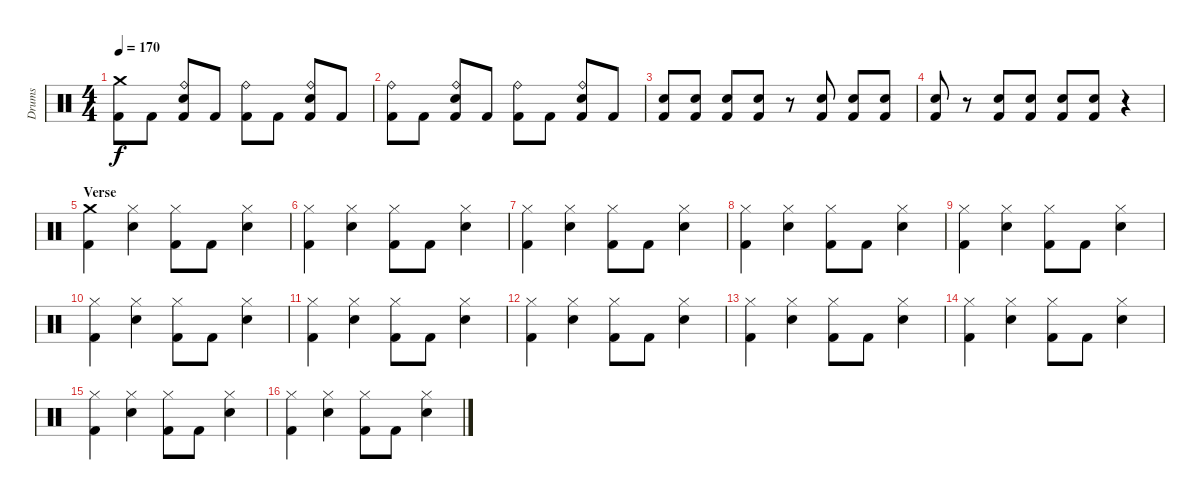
\track ("Drums" "Drums") {instrument percussion}
\staff {score}
\articulation defaults
\ts (4 4)
\tempo 170
\clef neutral
\ks c
("Crash medium (hit)" "Kick (hit) 2").8{dy f} "Kick (hit) 2".8 ("Ride (bell)" "Electric Snare (hit)" "Kick (hit) 2").8 "Kick (hit) 2".8 ("Ride (bell)" "Kick (hit) 2").8 "Kick (hit) 2".8 ("Ride (bell)" "Electric Snare (hit)" "Kick (hit) 2").8 "Kick (hit) 2".8 |
("Ride (bell)" "Kick (hit) 2").8 "Kick (hit) 2".8 ("Ride (bell)" "Electric Snare (hit)" "Kick (hit) 2").8 "Kick (hit) 2".8 ("Ride (bell)" "Kick (hit) 2").8 "Kick (hit) 2".8 ("Ride (bell)" "Electric Snare (hit)" "Kick (hit) 2").8 "Kick (hit) 2".8 |
("Electric Snare (hit)" "Kick (hit) 2").8 ("Electric Snare (hit)" "Kick (hit) 2").8 ("Electric Snare (hit)" "Kick (hit) 2").8 ("Electric Snare (hit)" "Kick (hit) 2").8 r.8 ("Electric Snare (hit)" "Kick (hit) 2").8 ("Electric Snare (hit)" "Kick (hit) 2").8 ("Electric Snare (hit)" "Kick (hit) 2").8 |
("Electric Snare (hit)" "Kick (hit) 2").8 r.8 ("Electric Snare (hit)" "Kick (hit) 2").8 ("Electric Snare (hit)" "Kick (hit) 2").8 ("Electric Snare (hit)" "Kick (hit) 2").8 ("Electric Snare (hit)" "Kick (hit) 2").8 r.4 |
\section ("" "Verse")
("Crash medium (hit)" "Kick (hit) 2").4 ("Hi-Hat (closed)" "Electric Snare (hit)").4 ("Hi-Hat (closed)" "Kick (hit) 2").8 "Kick (hit) 2".8 ("Hi-Hat (closed)" "Electric Snare (hit)").4 |
("Hi-Hat (closed)" "Kick (hit) 2").4 ("Hi-Hat (closed)" "Electric Snare (hit)").4 ("Hi-Hat (closed)" "Kick (hit) 2").8 "Kick (hit) 2".8 ("Hi-Hat (closed)" "Electric Snare (hit)").4 |
("Hi-Hat (closed)" "Kick (hit) 2").4 ("Hi-Hat (closed)" "Electric Snare (hit)").4 ("Hi-Hat (closed)" "Kick (hit) 2").8 "Kick (hit) 2".8 ("Hi-Hat (closed)" "Electric Snare (hit)").4 |
("Hi-Hat (closed)" "Kick (hit) 2").4 ("Hi-Hat (closed)" "Electric Snare (hit)").4 ("Hi-Hat (closed)" "Kick (hit) 2").8 "Kick (hit) 2".8 ("Hi-Hat (closed)" "Electric Snare (hit)").4 |
("Hi-Hat (closed)" "Kick (hit) 2").4 ("Hi-Hat (closed)" "Electric Snare (hit)").4 ("Hi-Hat (closed)" "Kick (hit) 2").8 "Kick (hit) 2".8 ("Hi-Hat (closed)" "Electric Snare (hit)").4 |
("Hi-Hat (closed)" "Kick (hit) 2").4 ("Hi-Hat (closed)" "Electric Snare (hit)").4 ("Hi-Hat (closed)" "Kick (hit) 2").8 "Kick (hit) 2".8 ("Hi-Hat (closed)" "Electric Snare (hit)").4 |
("Hi-Hat (closed)" "Kick (hit) 2").4 ("Hi-Hat (closed)" "Electric Snare (hit)").4 ("Hi-Hat (closed)" "Kick (hit) 2").8 "Kick (hit) 2".8 ("Hi-Hat (closed)" "Electric Snare (hit)").4 |
("Hi-Hat (closed)" "Kick (hit) 2").4 ("Hi-Hat (closed)" "Electric Snare (hit)").4 ("Hi-Hat (closed)" "Kick (hit) 2").8 "Kick (hit) 2".8 ("Hi-Hat (closed)" "Electric Snare (hit)").4 |
("Hi-Hat (closed)" "Kick (hit) 2").4 ("Hi-Hat (closed)" "Electric Snare (hit)").4 ("Hi-Hat (closed)" "Kick (hit) 2").8 "Kick (hit) 2".8 ("Hi-Hat (closed)" "Electric Snare (hit)").4 |
("Hi-Hat (closed)" "Kick (hit) 2").4 ("Hi-Hat (closed)" "Electric Snare (hit)").4 ("Hi-Hat (closed)" "Kick (hit) 2").8 "Kick (hit) 2".8 ("Hi-Hat (closed)" "Electric Snare (hit)").4 |
("Hi-Hat (closed)" "Kick (hit) 2").4 ("Hi-Hat (closed)" "Electric Snare (hit)").4 ("Hi-Hat (closed)" "Kick (hit) 2").8 "Kick (hit) 2".8 ("Hi-Hat (closed)" "Electric Snare (hit)").4 |
("Hi-Hat (closed)" "Kick (hit) 2").4 ("Hi-Hat (closed)" "Electric Snare (hit)").4 ("Hi-Hat (closed)" "Kick (hit) 2").8 "Kick (hit) 2".8 ("Hi-Hat (closed)" "Electric Snare (hit)").4
